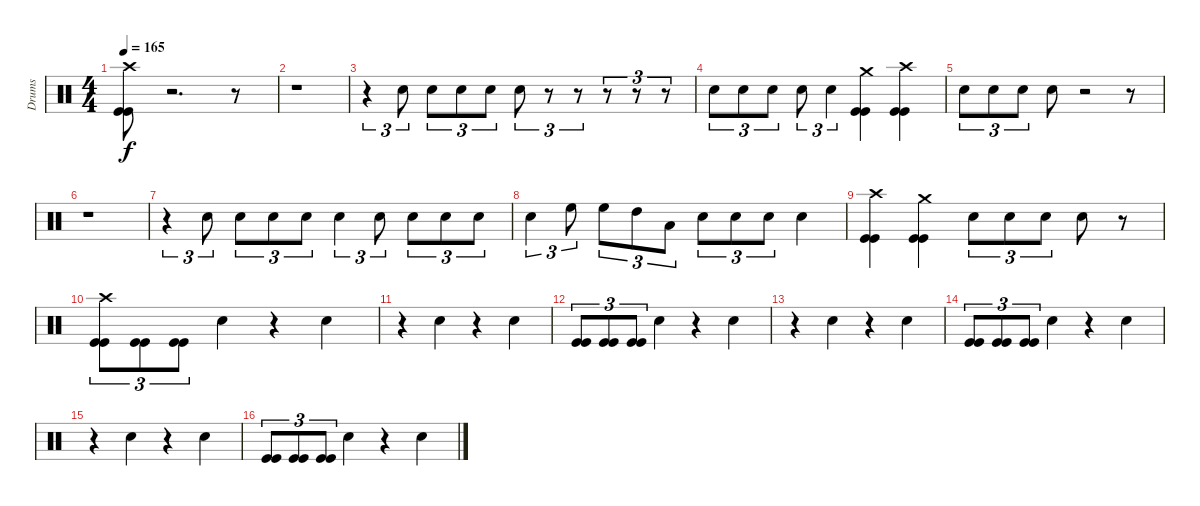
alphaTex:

\track ("Drums" "Drums") {instrument percussion}
\staff {score}
\articulation defaults
\ts (4 4)
\tempo 165
\clef neutral
\ks c
("Kick (hit)" "Kick (hit)" "Crash high (hit)").8{dy f} r.2{d} r.8 |
r.1 |
r.4{tu (3 2)} "Snare (hit) 2".8{tu (3 2)} "Snare (hit) 2".8{tu (3 2)} "Snare (hit) 2".8{tu (3 2)} "Snare (hit) 2".8{tu (3 2)} "Snare (hit) 2".8{tu (3 2)} r.8{tu (3 2)} r.8{tu (3 2)} r.8{tu (3 2)} r.8{tu (3 2)} r.8{tu (3 2)} |
"Snare (hit) 2".8{tu (3 2)} "Snare (hit) 2".8{tu (3 2)} "Snare (hit) 2".8{tu (3 2)} "Snare (hit) 2".8{tu (3 2)} "Snare (hit) 2".4{tu (3 2)} ("Kick (hit)" "Kick (hit)" "Crash medium (hit)").4 ("Kick (hit)" "Kick (hit)" "Crash high (hit)").4 |
"Snare (hit) 2".8{tu (3 2)} "Snare (hit) 2".8{tu (3 2)} "Snare (hit) 2".8{tu (3 2)} "Snare (hit) 2".8 r.2 r.8 |
r.1 |
r.4{tu (3 2)} "Snare (hit) 2".8{tu (3 2)} "Snare (hit) 2".8{tu (3 2)} "Snare (hit) 2".8{tu (3 2)} "Snare (hit) 2".8{tu (3 2)} "Snare (hit) 2".4{tu (3 2)} "Snare (hit) 2".8{tu (3 2)} "Snare (hit) 2".8{tu (3 2)} "Snare (hit) 2".8{tu (3 2)} "Snare (hit) 2".8{tu (3 2)} |
"Electric Snare (hit)".4{tu (3 2)} "High Floor Tom (hit)".8{tu (3 2)} "High Floor Tom (hit)".8{tu (3 2)} "High Tom (hit)".8{tu (3 2)} "Low Tom (hit)".8{tu (3 2)} "Snare (hit) 2".8{tu (3 2)} "Snare (hit) 2".8{tu (3 2)} "Snare (hit) 2".8{tu (3 2)} "Snare (hit) 2".4 |
("Kick (hit)" "Kick (hit)" "Crash high (hit)").4 ("Kick (hit)" "Kick (hit)" "Crash medium (hit)").4 "Snare (hit) 2".8{tu (3 2)} "Snare (hit) 2".8{tu (3 2)} "Snare (hit) 2".8{tu (3 2)} "Snare (hit) 2".8 r.8 |
("Kick (hit)" "Kick (hit)" "Crash high (hit)").8{tu (3 2)} ("Kick (hit)" "Kick (hit)").8{tu (3 2)} ("Kick (hit)" "Kick (hit)").8{tu (3 2)} "Snare (hit) 2".4 r.4 "Snare (hit) 2".4 |
r.4 "Snare (hit) 2".4 r.4 "Snare (hit) 2".4 |
("Kick (hit)" "Kick (hit)").8{tu (3 2)} ("Kick (hit)" "Kick (hit)").8{tu (3 2)} ("Kick (hit)" "Kick (hit)").8{tu (3 2)} "Snare (hit) 2".4 r.4 "Snare (hit) 2".4 |
r.4 "Snare (hit) 2".4 r.4 "Snare (hit) 2".4 |
("Kick (hit)" "Kick (hit)").8{tu (3 2)} ("Kick (hit)" "Kick (hit)").8{tu (3 2)} ("Kick (hit)" "Kick (hit)").8{tu (3 2)} "Snare (hit) 2".4 r.4 "Snare (hit) 2".4 |
r.4 "Snare (hit) 2".4 r.4 "Snare (hit) 2".4 |
("Kick (hit)" "Kick (hit)").8{tu (3 2)} ("Kick (hit)" "Kick (hit)").8{tu (3 2)} ("Kick (hit)" "Kick (hit)").8{tu (3 2)} "Snare (hit) 2".4 r.4 "Snare (hit) 2".4
